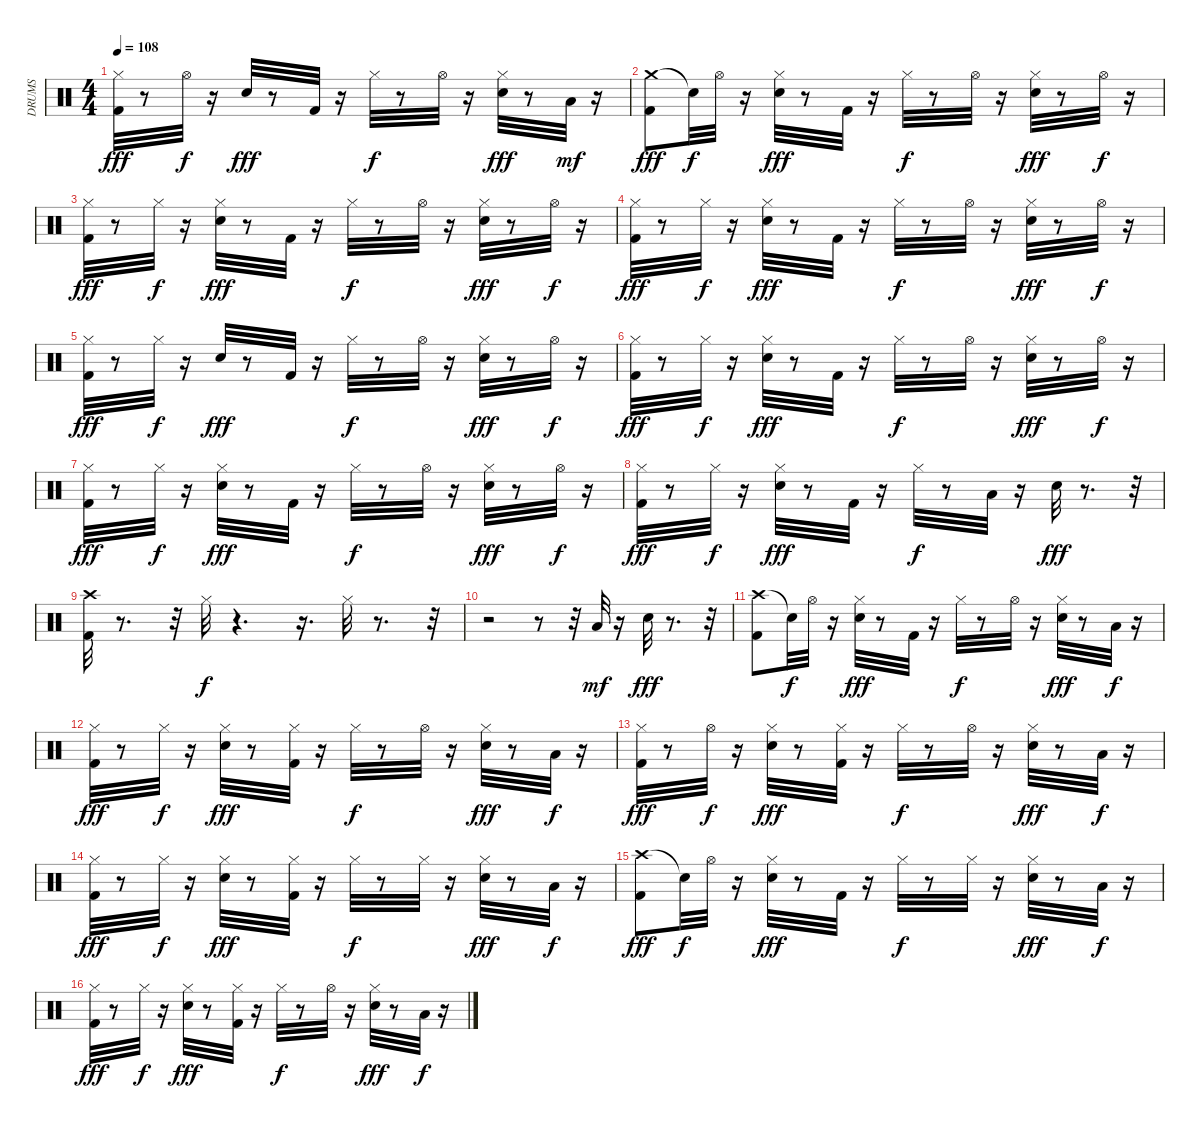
\track ("DRUMS" "DRUMS") {instrument percussion}
\staff {score}
\articulation defaults
\ts (4 4)
\tempo 108
\clef neutral
\ks c
("Hi-Hat (closed)" "Kick (hit) 2").32{dy fff} r.8 "Hi-Hat (open)".32{dy f} r.16 "Snare (hit) 2".32{dy fff} r.8 "Kick (hit) 2".32 r.16 "Hi-Hat (closed)".32{dy f} r.8 "Hi-Hat (open)".32 r.16 ("Hi-Hat (closed)" "Snare (hit) 2").32{dy fff} r.8 "Low Floor Tom (hit)".32{dy mf} r.16 |
("Crash medium (hit)" "Kick (hit) 2").8{dy fff} "Snare (hit)"{t}.32{dy f} "Hi-Hat (open)".32 r.16 ("Hi-Hat (closed)" "Snare (hit) 2").32{dy fff} r.8 "Kick (hit) 2".32 r.16 "Hi-Hat (closed)".32{dy f} r.8 "Hi-Hat (open)".32 r.16 ("Hi-Hat (closed)" "Snare (hit) 2").32{dy fff} r.8 "Hi-Hat (open)".32{dy f} r.16 |
("Hi-Hat (closed)" "Kick (hit) 2").32{dy fff} r.8 "Hi-Hat (closed)".32{dy f} r.16 ("Hi-Hat (closed)" "Snare (hit) 2").32{dy fff} r.8 "Kick (hit) 2".32 r.16 "Hi-Hat (closed)".32{dy f} r.8 "Hi-Hat (open)".32 r.16 ("Hi-Hat (closed)" "Snare (hit) 2").32{dy fff} r.8 "Hi-Hat (open)".32{dy f} r.16 |
("Hi-Hat (closed)" "Kick (hit) 2").32{dy fff} r.8 "Hi-Hat (closed)".32{dy f} r.16 ("Hi-Hat (closed)" "Snare (hit) 2").32{dy fff} r.8 "Kick (hit) 2".32 r.16 "Hi-Hat (closed)".32{dy f} r.8 "Hi-Hat (open)".32 r.16 ("Hi-Hat (closed)" "Snare (hit) 2").32{dy fff} r.8 "Hi-Hat (open)".32{dy f} r.16 |
("Hi-Hat (closed)" "Kick (hit) 2").32{dy fff} r.8 "Hi-Hat (closed)".32{dy f} r.16 "Snare (hit) 2".32{dy fff} r.8 "Kick (hit) 2".32 r.16 "Hi-Hat (closed)".32{dy f} r.8 "Hi-Hat (open)".32 r.16 ("Hi-Hat (closed)" "Snare (hit) 2").32{dy fff} r.8 "Hi-Hat (open)".32{dy f} r.16 |
("Hi-Hat (closed)" "Kick (hit) 2").32{dy fff} r.8 "Hi-Hat (closed)".32{dy f} r.16 ("Hi-Hat (closed)" "Snare (hit) 2").32{dy fff} r.8 "Kick (hit) 2".32 r.16 "Hi-Hat (closed)".32{dy f} r.8 "Hi-Hat (open)".32 r.16 ("Hi-Hat (closed)" "Snare (hit) 2").32{dy fff} r.8 "Hi-Hat (open)".32{dy f} r.16 |
("Hi-Hat (closed)" "Kick (hit) 2").32{dy fff} r.8 "Hi-Hat (closed)".32{dy f} r.16 ("Hi-Hat (closed)" "Snare (hit) 2").32{dy fff} r.8 "Kick (hit) 2".32 r.16 "Hi-Hat (closed)".32{dy f} r.8 "Hi-Hat (open)".32 r.16 ("Hi-Hat (closed)" "Snare (hit) 2").32{dy fff} r.8 "Hi-Hat (open)".32{dy f} r.16 |
("Hi-Hat (closed)" "Kick (hit) 2").32{dy fff} r.8 "Hi-Hat (closed)".32{dy f} r.16 ("Hi-Hat (closed)" "Snare (hit) 2").32{dy fff} r.8 "Kick (hit) 2".32 r.16 "Hi-Hat (closed)".32{dy f} r.8 "Low Tom (hit)".32 r.16 "Snare (hit) 2".32{dy fff} r.8{d} r.32 |
("Crash high (hit)" "Kick (hit) 2").32 r.8{d} r.32 "Hi-Hat (closed)".32{dy f} r.4{d} r.16{d} "Hi-Hat (closed)".32 r.8{d} r.32 |
r.2 r.8 r.32 "Low Floor Tom (hit)".32{dy mf} r.16 "Snare (hit) 2".32{dy fff} r.8{d} r.32 |
("Crash high (hit)" "Kick (hit) 2").8 "Snare (hit)"{t}.32{dy f} "Hi-Hat (open)".32 r.16 ("Hi-Hat (closed)" "Snare (hit) 2").32{dy fff} r.8 "Kick (hit) 2".32 r.16 "Hi-Hat (closed)".32{dy f} r.8 "Hi-Hat (open)".32 r.16 ("Hi-Hat (closed)" "Snare (hit) 2").32{dy fff} r.8 "Low Tom (hit)".32{dy f} r.16 |
("Hi-Hat (closed)" "Kick (hit) 2").32{dy fff} r.8 "Hi-Hat (closed)".32{dy f} r.16 ("Hi-Hat (closed)" "Snare (hit) 2").32{dy fff} r.8 ("Hi-Hat (closed)" "Kick (hit) 2").32 r.16 "Hi-Hat (closed)".32{dy f} r.8 "Hi-Hat (open)".32 r.16 ("Hi-Hat (closed)" "Snare (hit) 2").32{dy fff} r.8 "Low Floor Tom (hit)".32{dy f} r.16 |
("Hi-Hat (closed)" "Kick (hit) 2").32{dy fff} r.8 "Hi-Hat (open)".32{dy f} r.16 ("Hi-Hat (closed)" "Snare (hit) 2").32{dy fff} r.8 ("Hi-Hat (closed)" "Kick (hit) 2").32 r.16 "Hi-Hat (closed)".32{dy f} r.8 "Hi-Hat (open)".32 r.16 ("Hi-Hat (closed)" "Snare (hit) 2").32{dy fff} r.8 "Low Tom (hit)".32{dy f} r.16 |
("Hi-Hat (closed)" "Kick (hit) 2").32{dy fff} r.8 "Hi-Hat (closed)".32{dy f} r.16 ("Hi-Hat (closed)" "Snare (hit) 2").32{dy fff} r.8 ("Hi-Hat (closed)" "Kick (hit) 2").32 r.16 "Hi-Hat (closed)".32{dy f} r.8 "Hi-Hat (closed)".32 r.16 ("Hi-Hat (closed)" "Snare (hit) 2").32{dy fff} r.8 "Low Floor Tom (hit)".32{dy f} r.16 |
("Crash high (hit)" "Kick (hit) 2").8{dy fff} "Snare (hit)"{t}.32{dy f} "Hi-Hat (open)".32 r.16 ("Hi-Hat (closed)" "Snare (hit) 2").32{dy fff} r.8 "Kick (hit) 2".32 r.16 "Hi-Hat (closed)".32{dy f} r.8 "Hi-Hat (closed)".32 r.16 ("Hi-Hat (closed)" "Snare (hit) 2").32{dy fff} r.8 "Low Tom (hit)".32{dy f} r.16 |
("Hi-Hat (closed)" "Kick (hit) 2").32{dy fff} r.8 "Hi-Hat (closed)".32{dy f} r.16 ("Hi-Hat (closed)" "Snare (hit) 2").32{dy fff} r.8 ("Hi-Hat (closed)" "Kick (hit) 2").32 r.16 "Hi-Hat (closed)".32{dy f} r.8 "Hi-Hat (open)".32 r.16 ("Hi-Hat (closed)" "Snare (hit) 2").32{dy fff} r.8 "Low Floor Tom (hit)".32{dy f} r.16
